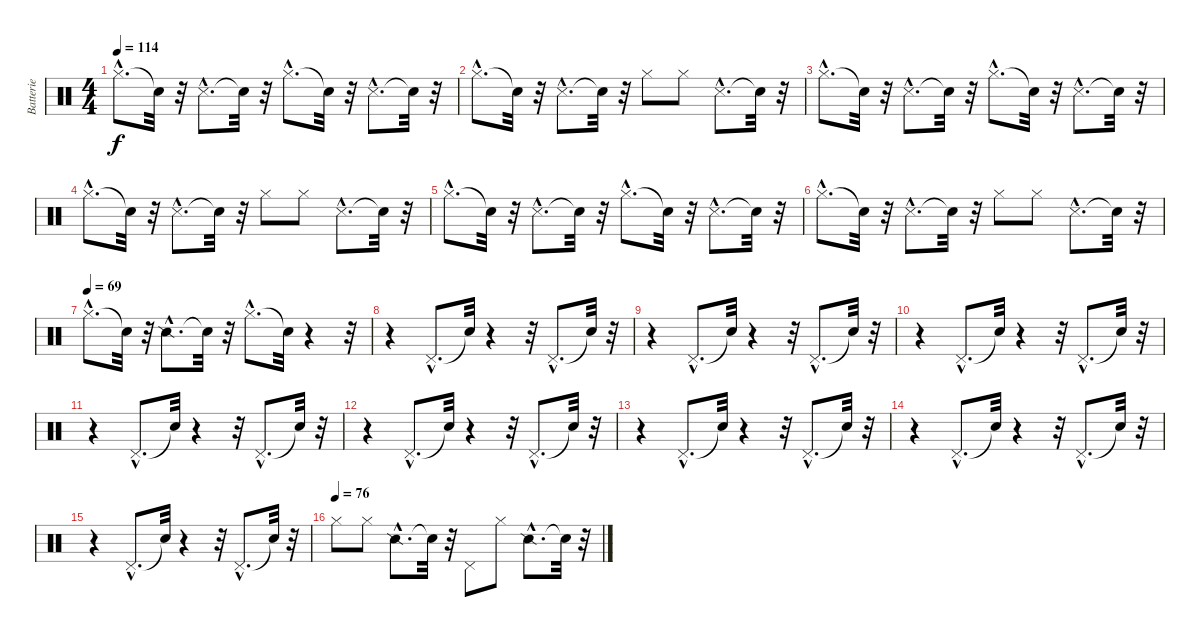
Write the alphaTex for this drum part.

\track ("Batterie" "Batterie") {instrument percussion}
\staff {score}
\articulation defaults
\ts (4 4)
\tempo 114
\clef neutral
\ks c "Hi-Hat (closed)"{hac}.8{d dy f} "Snare (hit)"{t}.32
r.32 "Snare (side stick) 3"{hac}.8{d} "Snare (hit)"{t}.32 r.32 "Hi-Hat (closed)"{hac}.8{d} "Snare (hit)"{t}.32 r.32 "Snare (side stick) 3"{hac}.8{d} "Snare (hit)"{t}.32 r.32 |
"Hi-Hat (closed)"{hac}.8{d} "Snare (hit)"{t}.32 r.32 "Snare (side stick) 3"{hac}.8{d} "Snare (hit)"{t}.32 r.32 "Hi-Hat (closed)".8 "Hi-Hat (closed)".8 "Snare (side stick) 3"{hac}.8{d} "Snare (hit)"{t}.32 r.32 |
"Hi-Hat (closed)"{hac}.8{d} "Snare (hit)"{t}.32 r.32 "Snare (side stick) 3"{hac}.8{d} "Snare (hit)"{t}.32 r.32 "Hi-Hat (closed)"{hac}.8{d} "Snare (hit)"{t}.32 r.32 "Snare (side stick) 3"{hac}.8{d} "Snare (hit)"{t}.32 r.32 |
"Hi-Hat (closed)"{hac}.8{d} "Snare (hit)"{t}.32 r.32 "Snare (side stick) 3"{hac}.8{d} "Snare (hit)"{t}.32 r.32 "Hi-Hat (closed)".8 "Hi-Hat (closed)".8 "Snare (side stick) 3"{hac}.8{d} "Snare (hit)"{t}.32 r.32 |
"Hi-Hat (closed)"{hac}.8{d} "Snare (hit)"{t}.32 r.32 "Snare (side stick) 3"{hac}.8{d} "Snare (hit)"{t}.32 r.32 "Hi-Hat (closed)"{hac}.8{d} "Snare (hit)"{t}.32 r.32 "Snare (side stick) 3"{hac}.8{d} "Snare (hit)"{t}.32 r.32 |
"Hi-Hat (closed)"{hac}.8{d} "Snare (hit)"{t}.32 r.32 "Snare (side stick) 3"{hac}.8{d} "Snare (hit)"{t}.32 r.32 "Hi-Hat (closed)".8 "Hi-Hat (closed)".8 "Snare (side stick) 3"{hac}.8{d} "Snare (hit)"{t}.32 r.32 |
\tempo (69)
"Hi-Hat (closed)"{hac}.8{d} "Snare (hit)"{t}.32 r.32 "Snare (side stick) 2"{hac}.8{d} "Snare (hit)"{t}.32 r.32 "Hi-Hat (closed)"{hac}.8{d} "Snare (hit)"{t}.32 r.4 r.32 |
r.4 "Pedal Hi-Hat (hit)"{hac}.8{d} "Snare (hit)"{t}.32 r.4 r.32 "Pedal Hi-Hat (hit)"{hac}.8{d} "Snare (hit)"{t}.32 r.32 |
r.4 "Pedal Hi-Hat (hit)"{hac}.8{d} "Snare (hit)"{t}.32 r.4 r.32 "Pedal Hi-Hat (hit)"{hac}.8{d} "Snare (hit)"{t}.32 r.32 |
r.4 "Pedal Hi-Hat (hit)"{hac}.8{d} "Snare (hit)"{t}.32 r.4 r.32 "Pedal Hi-Hat (hit)"{hac}.8{d} "Snare (hit)"{t}.32 r.32 |
r.4 "Pedal Hi-Hat (hit)"{hac}.8{d} "Snare (hit)"{t}.32 r.4 r.32 "Pedal Hi-Hat (hit)"{hac}.8{d} "Snare (hit)"{t}.32 r.32 |
r.4 "Pedal Hi-Hat (hit)"{hac}.8{d} "Snare (hit)"{t}.32 r.4 r.32 "Pedal Hi-Hat (hit)"{hac}.8{d} "Snare (hit)"{t}.32 r.32 |
r.4 "Pedal Hi-Hat (hit)"{hac}.8{d} "Snare (hit)"{t}.32 r.4 r.32 "Pedal Hi-Hat (hit)"{hac}.8{d} "Snare (hit)"{t}.32 r.32 |
r.4 "Pedal Hi-Hat (hit)"{hac}.8{d} "Snare (hit)"{t}.32 r.4 r.32 "Pedal Hi-Hat (hit)"{hac}.8{d} "Snare (hit)"{t}.32 r.32 |
r.4 "Pedal Hi-Hat (hit)"{hac}.8{d} "Snare (hit)"{t}.32 r.4 r.32 "Pedal Hi-Hat (hit)"{hac}.8{d} "Snare (hit)"{t}.32 r.32 |
\tempo (76)
"Hi-Hat (closed)".8 "Hi-Hat (closed)".8 "Snare (side stick) 2"{hac}.8{d} "Snare (hit)"{t}.32 r.32 "Pedal Hi-Hat (hit)".8 "Hi-Hat (closed)".8 "Snare (side stick) 2"{hac}.8{d} "Snare (hit)"{t}.32 r.32
